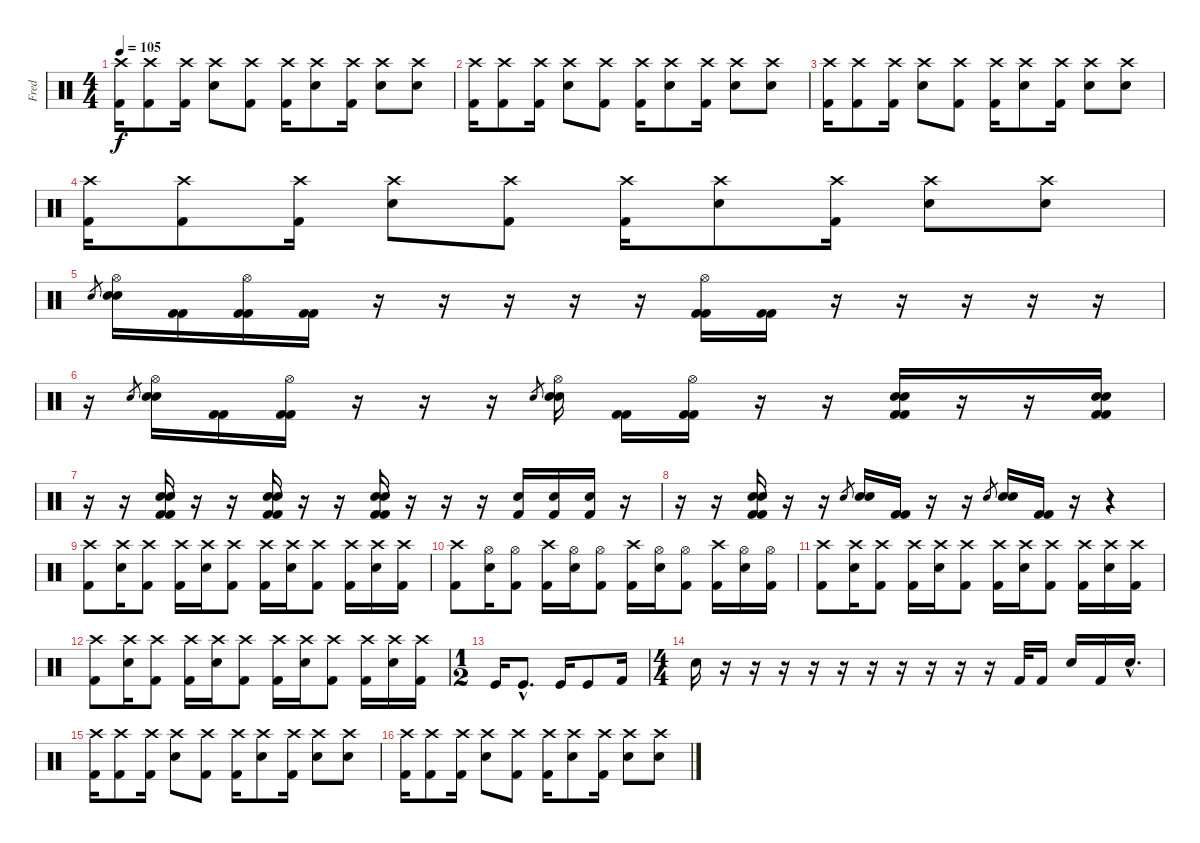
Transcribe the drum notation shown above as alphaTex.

\track ("Fred" "Fred") {instrument percussion}
\staff {score}
\articulation defaults
\ts (4 4)
\tempo 105
\clef neutral
\ks c
("Crash high (hit)" "Kick (hit) 2").16{dy f} ("Crash high (hit)" "Kick (hit) 2").8 ("Crash high (hit)" "Kick (hit) 2").16 ("Crash high (hit)" "Electric Snare (hit)").8 ("Crash high (hit)" "Kick (hit) 2").8 ("Crash high (hit)" "Kick (hit) 2").16 ("Crash high (hit)" "Electric Snare (hit)").8 ("Crash high (hit)" "Kick (hit) 2").16 ("Crash high (hit)" "Electric Snare (hit)").8 ("Crash high (hit)" "Electric Snare (hit)").8 |
("Crash high (hit)" "Kick (hit) 2").16 ("Crash high (hit)" "Kick (hit) 2").8 ("Crash high (hit)" "Kick (hit) 2").16 ("Crash high (hit)" "Electric Snare (hit)").8 ("Crash high (hit)" "Kick (hit) 2").8 ("Crash high (hit)" "Kick (hit) 2").16 ("Crash high (hit)" "Electric Snare (hit)").8 ("Crash high (hit)" "Kick (hit) 2").16 ("Crash high (hit)" "Electric Snare (hit)").8 ("Crash high (hit)" "Electric Snare (hit)").8 |
("Crash high (hit)" "Kick (hit) 2").16 ("Crash high (hit)" "Kick (hit) 2").8 ("Crash high (hit)" "Kick (hit) 2").16 ("Crash high (hit)" "Electric Snare (hit)").8 ("Crash high (hit)" "Kick (hit) 2").8 ("Crash high (hit)" "Kick (hit) 2").16 ("Crash high (hit)" "Electric Snare (hit)").8 ("Crash high (hit)" "Kick (hit) 2").16 ("Crash high (hit)" "Electric Snare (hit)").8 ("Crash high (hit)" "Electric Snare (hit)").8 |
("Crash high (hit)" "Kick (hit) 2").16 ("Crash high (hit)" "Kick (hit) 2").8 ("Crash high (hit)" "Kick (hit) 2").16 ("Crash high (hit)" "Electric Snare (hit)").8 ("Crash high (hit)" "Kick (hit) 2").8 ("Crash high (hit)" "Kick (hit) 2").16 ("Crash high (hit)" "Electric Snare (hit)").8 ("Crash high (hit)" "Kick (hit) 2").16 ("Crash high (hit)" "Electric Snare (hit)").8 ("Crash high (hit)" "Electric Snare (hit)").8 |
"Electric Snare (hit)".8{gr} ("Hi-Hat (open)" "Electric Snare (hit)" "Electric Snare (hit)").16 ("Kick (hit) 2" "Kick (hit) 2").16 ("Hi-Hat (open)" "Kick (hit) 2" "Kick (hit) 2").16 ("Kick (hit) 2" "Kick (hit) 2").16 r.16 r.16 r.16 r.16 r.16 ("Hi-Hat (open)" "Kick (hit) 2" "Kick (hit) 2").16 ("Kick (hit) 2" "Kick (hit) 2").16 r.16 r.16 r.16 r.16 r.16 |
r.16 "Electric Snare (hit)".8{gr} ("Hi-Hat (open)" "Electric Snare (hit)" "Electric Snare (hit)").16 ("Kick (hit) 2" "Kick (hit) 2").16 ("Hi-Hat (open)" "Kick (hit) 2" "Kick (hit) 2").16 r.16 r.16 r.16 "Electric Snare (hit)".8{gr} ("Hi-Hat (open)" "Electric Snare (hit)" "Electric Snare (hit)").16 ("Kick (hit) 2" "Kick (hit) 2").16 ("Hi-Hat (open)" "Kick (hit) 2" "Kick (hit) 2").16 r.16 r.16 ("Electric Snare (hit)" "Electric Snare (hit)" "Kick (hit) 2" "Kick (hit) 2").16 r.16 r.16 ("Electric Snare (hit)" "Electric Snare (hit)" "Kick (hit) 2" "Kick (hit) 2").16 |
r.16 r.16 ("Electric Snare (hit)" "Electric Snare (hit)" "Kick (hit) 2" "Kick (hit) 2").16 r.16 r.16 ("Electric Snare (hit)" "Electric Snare (hit)" "Kick (hit) 2" "Kick (hit) 2").16 r.16 r.16 ("Electric Snare (hit)" "Electric Snare (hit)" "Kick (hit) 2" "Kick (hit) 2").16 r.16 r.16 r.16 ("Electric Snare (hit)" "Kick (hit) 2").16 ("Electric Snare (hit)" "Kick (hit) 2").16 ("Electric Snare (hit)" "Kick (hit) 2").16 r.16 |
r.16 r.16 ("Electric Snare (hit)" "Electric Snare (hit)" "Kick (hit) 2" "Kick (hit) 2").16 r.16 r.16 "Electric Snare (hit)".8{gr} ("Electric Snare (hit)" "Electric Snare (hit)").16 ("Kick (hit) 2" "Kick (hit) 2").16 r.16 r.16 "Electric Snare (hit)".8{gr} ("Electric Snare (hit)" "Electric Snare (hit)").16 ("Kick (hit) 2" "Kick (hit) 2").16 r.16 r.4 |
("Crash high (hit)" "Kick (hit) 2").8 ("Crash high (hit)" "Electric Snare (hit)").16 ("Crash high (hit)" "Kick (hit) 2").8 ("Crash high (hit)" "Kick (hit) 2").16 ("Crash high (hit)" "Electric Snare (hit)").16 ("Crash high (hit)" "Kick (hit) 2").8 ("Crash high (hit)" "Kick (hit) 2").16 ("Crash high (hit)" "Electric Snare (hit)").16 ("Crash high (hit)" "Kick (hit) 2").8 ("Crash high (hit)" "Kick (hit) 2").16 ("Crash high (hit)" "Electric Snare (hit)").16 ("Crash high (hit)" "Kick (hit) 2").16 |
("Crash high (hit)" "Kick (hit) 2").8 ("Hi-Hat (open)" "Electric Snare (hit)").16 ("Hi-Hat (open)" "Kick (hit) 2").8 ("Crash high (hit)" "Kick (hit) 2").16 ("Hi-Hat (open)" "Electric Snare (hit)").16 ("Hi-Hat (open)" "Kick (hit) 2").8 ("Crash high (hit)" "Kick (hit) 2").16 ("Hi-Hat (open)" "Electric Snare (hit)").16 ("Hi-Hat (open)" "Kick (hit) 2").8 ("Crash high (hit)" "Kick (hit) 2").16 ("Hi-Hat (open)" "Electric Snare (hit)").16 ("Hi-Hat (open)" "Kick (hit) 2").16 |
("Crash high (hit)" "Kick (hit) 2").8 ("Crash high (hit)" "Electric Snare (hit)").16 ("Crash high (hit)" "Kick (hit) 2").8 ("Crash high (hit)" "Kick (hit) 2").16 ("Crash high (hit)" "Electric Snare (hit)").16 ("Crash high (hit)" "Kick (hit) 2").8 ("Crash high (hit)" "Kick (hit) 2").16 ("Crash high (hit)" "Electric Snare (hit)").16 ("Crash high (hit)" "Kick (hit) 2").8 ("Crash high (hit)" "Kick (hit) 2").16 ("Crash high (hit)" "Electric Snare (hit)").16 ("Crash high (hit)" "Kick (hit) 2").16 |
("Crash high (hit)" "Kick (hit) 2").8 ("Crash high (hit)" "Electric Snare (hit)").16 ("Crash high (hit)" "Kick (hit) 2").8 ("Crash high (hit)" "Kick (hit) 2").16 ("Crash high (hit)" "Electric Snare (hit)").16 ("Crash high (hit)" "Kick (hit) 2").8 ("Crash high (hit)" "Kick (hit) 2").16 ("Crash high (hit)" "Electric Snare (hit)").16 ("Crash high (hit)" "Kick (hit) 2").8 ("Crash high (hit)" "Kick (hit) 2").16 ("Crash high (hit)" "Electric Snare (hit)").16 ("Crash high (hit)" "Kick (hit) 2").16 |
\ts (1 2)
"Kick (hit)".16 "Kick (hit)"{hac}.8{d} "Kick (hit)".16 "Kick (hit)".8 "Kick (hit) 2".16 |
\ts (4 4)
"Electric Snare (hit)".16 r.16 r.16 r.16 r.16 r.16 r.16 r.16 r.16 r.16 r.16 "Kick (hit) 2".32 "Kick (hit) 2".16 "Electric Snare (hit)".16 "Kick (hit) 2".16 "Electric Snare (hit)"{hac}.16{d} |
("Crash high (hit)" "Kick (hit) 2").16 ("Crash high (hit)" "Kick (hit) 2").8 ("Crash high (hit)" "Kick (hit) 2").16 ("Crash high (hit)" "Electric Snare (hit)").8 ("Crash high (hit)" "Kick (hit) 2").8 ("Crash high (hit)" "Kick (hit) 2").16 ("Crash high (hit)" "Electric Snare (hit)").8 ("Crash high (hit)" "Kick (hit) 2").16 ("Crash high (hit)" "Electric Snare (hit)").8 ("Crash high (hit)" "Electric Snare (hit)").8 |
("Crash high (hit)" "Kick (hit) 2").16 ("Crash high (hit)" "Kick (hit) 2").8 ("Crash high (hit)" "Kick (hit) 2").16 ("Crash high (hit)" "Electric Snare (hit)").8 ("Crash high (hit)" "Kick (hit) 2").8 ("Crash high (hit)" "Kick (hit) 2").16 ("Crash high (hit)" "Electric Snare (hit)").8 ("Crash high (hit)" "Kick (hit) 2").16 ("Crash high (hit)" "Electric Snare (hit)").8 ("Crash high (hit)" "Electric Snare (hit)").8
